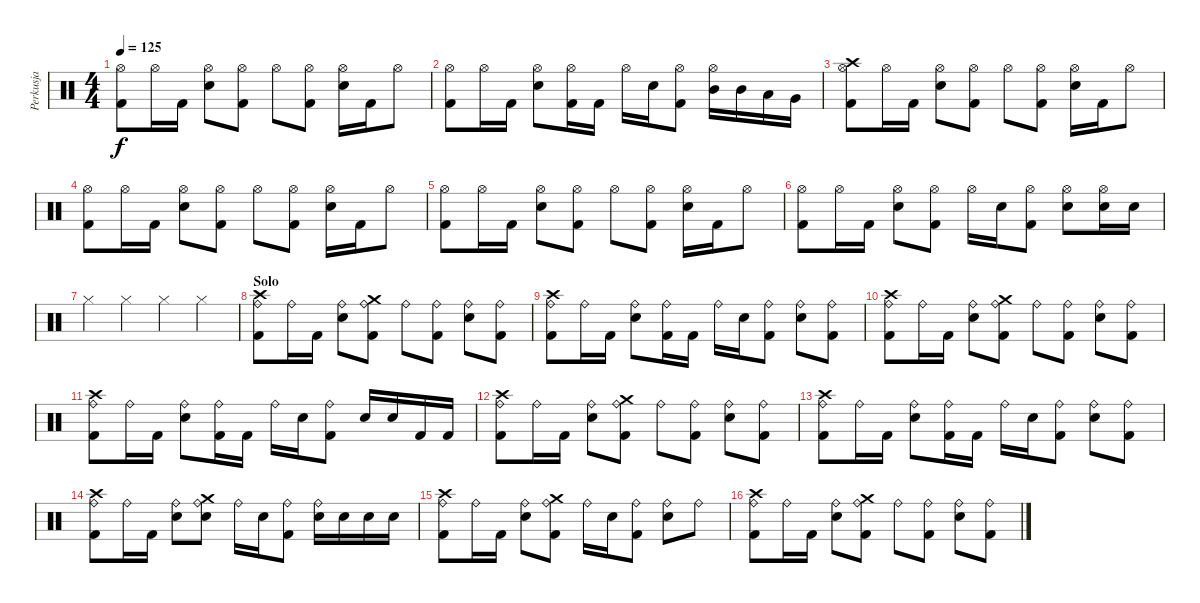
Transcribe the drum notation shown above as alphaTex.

\track ("Perkusja" "Perkusja") {instrument percussion}
\staff {score}
\articulation defaults
\ts (4 4)
\tempo 125
\clef neutral
\ks c
("Hi-Hat (open)" "Kick (hit) 2").8{dy f} "Hi-Hat (open)".16 "Kick (hit) 2".16 ("Hi-Hat (open)" "Electric Snare (hit)").8 ("Hi-Hat (open)" "Kick (hit) 2").8 "Hi-Hat (open)".8 ("Hi-Hat (open)" "Kick (hit) 2").8 ("Hi-Hat (open)" "Electric Snare (hit)").16 "Kick (hit) 2".16 "Hi-Hat (open)".8 |
("Hi-Hat (open)" "Kick (hit) 2").8 "Hi-Hat (open)".16 "Kick (hit) 2".16 ("Hi-Hat (open)" "Electric Snare (hit)").8 ("Hi-Hat (open)" "Kick (hit) 2").16 "Kick (hit) 2".16 "Hi-Hat (open)".16 "Electric Snare (hit)".16 ("Hi-Hat (open)" "Kick (hit) 2").8 ("Hi-Hat (open)" "Mid Tom (hit)").16 "Mid Tom (hit)".16 "Low Tom (hit)".16 "Very Low Tom (hit)".16 |
("Hi-Hat (open)" "Kick (hit) 2" "Crash high (hit)").8 "Hi-Hat (open)".16 "Kick (hit) 2".16 ("Hi-Hat (open)" "Electric Snare (hit)").8 ("Hi-Hat (open)" "Kick (hit) 2").8 "Hi-Hat (open)".8 ("Hi-Hat (open)" "Kick (hit) 2").8 ("Hi-Hat (open)" "Electric Snare (hit)").16 "Kick (hit) 2".16 "Hi-Hat (open)".8 |
("Hi-Hat (open)" "Kick (hit) 2").8 "Hi-Hat (open)".16 "Kick (hit) 2".16 ("Hi-Hat (open)" "Electric Snare (hit)").8 ("Hi-Hat (open)" "Kick (hit) 2").8 "Hi-Hat (open)".8 ("Hi-Hat (open)" "Kick (hit) 2").8 ("Hi-Hat (open)" "Electric Snare (hit)").16 "Kick (hit) 2".16 "Hi-Hat (open)".8 |
("Hi-Hat (open)" "Kick (hit) 2").8 "Hi-Hat (open)".16 "Kick (hit) 2".16 ("Hi-Hat (open)" "Electric Snare (hit)").8 ("Hi-Hat (open)" "Kick (hit) 2").8 "Hi-Hat (open)".8 ("Hi-Hat (open)" "Kick (hit) 2").8 ("Hi-Hat (open)" "Electric Snare (hit)").16 "Kick (hit) 2".16 "Hi-Hat (open)".8 |
("Hi-Hat (open)" "Kick (hit) 2").8 "Hi-Hat (open)".16 "Kick (hit) 2".16 ("Hi-Hat (open)" "Electric Snare (hit)").8 ("Hi-Hat (open)" "Kick (hit) 2").8 "Hi-Hat (open)".16 "Electric Snare (hit)".16 ("Hi-Hat (open)" "Kick (hit) 2").8 ("Hi-Hat (open)" "Electric Snare (hit)").8 ("Hi-Hat (open)" "Electric Snare (hit)").16 "Electric Snare (hit)".16 |
"Hi-Hat (closed)".4 "Hi-Hat (closed)".4 "Hi-Hat (closed)".4 "Hi-Hat (closed)".4 |
\section ("" "Solo")
("Ride (bell)" "Kick (hit) 2" "Crash high (hit)").8 "Ride (bell)".16 "Kick (hit) 2".16 ("Ride (bell)" "Electric Snare (hit)").8 ("Ride (bell)" "Kick (hit) 2" "Crash medium (hit)").8 "Ride (bell)".8 ("Ride (bell)" "Kick (hit) 2").8 ("Ride (bell)" "Electric Snare (hit)").8 ("Ride (bell)" "Kick (hit) 2").8 |
("Ride (bell)" "Kick (hit) 2" "Crash high (hit)").8 "Ride (bell)".16 "Kick (hit) 2".16 ("Ride (bell)" "Electric Snare (hit)").8 ("Ride (bell)" "Kick (hit) 2").16 "Kick (hit) 2".16 "Ride (bell)".16 "Electric Snare (hit)".16 ("Ride (bell)" "Kick (hit) 2").8 ("Ride (bell)" "Electric Snare (hit)").8 ("Ride (bell)" "Kick (hit) 2").8 |
("Ride (bell)" "Kick (hit) 2" "Crash high (hit)").8 "Ride (bell)".16 "Kick (hit) 2".16 ("Ride (bell)" "Electric Snare (hit)").8 ("Ride (bell)" "Kick (hit) 2" "Crash medium (hit)").8 "Ride (bell)".8 ("Ride (bell)" "Kick (hit) 2").8 ("Ride (bell)" "Electric Snare (hit)").8 ("Ride (bell)" "Kick (hit) 2").8 |
("Ride (bell)" "Kick (hit) 2" "Crash high (hit)").8 "Ride (bell)".16 "Kick (hit) 2".16 ("Ride (bell)" "Electric Snare (hit)").8 ("Ride (bell)" "Kick (hit) 2").16 "Kick (hit) 2".16 "Ride (bell)".16 "Electric Snare (hit)".16 ("Ride (bell)" "Kick (hit) 2").8 "Electric Snare (hit)".16 "Electric Snare (hit)".16 "Kick (hit) 2".16 "Kick (hit) 2".16 |
("Ride (bell)" "Kick (hit) 2" "Crash high (hit)").8 "Ride (bell)".16 "Kick (hit) 2".16 ("Ride (bell)" "Electric Snare (hit)").8 ("Ride (bell)" "Kick (hit) 2" "Crash medium (hit)").8 "Ride (bell)".8 ("Ride (bell)" "Kick (hit) 2").8 ("Ride (bell)" "Electric Snare (hit)").8 ("Ride (bell)" "Kick (hit) 2").8 |
("Ride (bell)" "Kick (hit) 2" "Crash high (hit)").8 "Ride (bell)".16 "Kick (hit) 2".16 ("Ride (bell)" "Electric Snare (hit)").8 ("Ride (bell)" "Kick (hit) 2").16 "Kick (hit) 2".16 "Ride (bell)".16 "Electric Snare (hit)".16 ("Ride (bell)" "Kick (hit) 2").8 ("Ride (bell)" "Electric Snare (hit)").8 ("Ride (bell)" "Kick (hit) 2").8 |
("Ride (bell)" "Kick (hit) 2" "Crash high (hit)").8 "Ride (bell)".16 "Kick (hit) 2".16 ("Ride (bell)" "Electric Snare (hit)").8 ("Ride (bell)" "Electric Snare (hit)" "Crash medium (hit)").8 "Ride (bell)".16 "Electric Snare (hit)".16 ("Ride (bell)" "Kick (hit) 2").8 ("Ride (bell)" "Electric Snare (hit)").16 "Electric Snare (hit)".16 "Electric Snare (hit)".16 "Electric Snare (hit)".16 |
("Ride (bell)" "Kick (hit) 2" "Crash high (hit)").8 "Ride (bell)".16 "Kick (hit) 2".16 ("Ride (bell)" "Electric Snare (hit)").8 ("Ride (bell)" "Kick (hit) 2" "Crash medium (hit)").8 "Ride (bell)".16 "Electric Snare (hit)".16 ("Ride (bell)" "Kick (hit) 2").8 ("Ride (bell)" "Electric Snare (hit)").8 "Ride (bell)".8 |
("Ride (bell)" "Kick (hit) 2" "Crash high (hit)").8 "Ride (bell)".16 "Kick (hit) 2".16 ("Ride (bell)" "Electric Snare (hit)").8 ("Ride (bell)" "Kick (hit) 2" "Crash medium (hit)").8 "Ride (bell)".8 ("Ride (bell)" "Kick (hit) 2").8 ("Ride (bell)" "Electric Snare (hit)").8 ("Ride (bell)" "Kick (hit) 2").8
